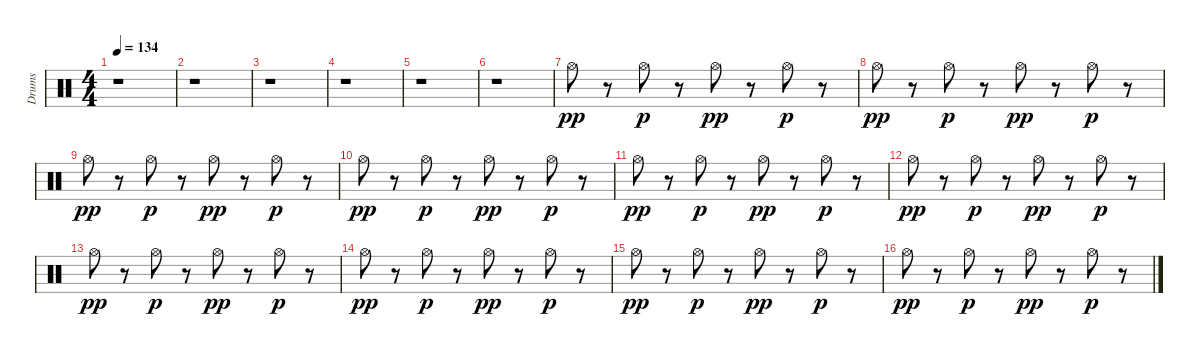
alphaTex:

\track ("Drums" "Drums") {instrument percussion}
\staff {score}
\articulation defaults
\ts (4 4)
\tempo 134
\clef neutral
\ks c
r.1{dy pp} |
r.1 |
r.1 |
r.1 |
r.1 |
r.1 |
"Hi-Hat (open)".8 r.8 "Hi-Hat (open)".8{dy p} r.8 "Hi-Hat (open)".8{dy pp} r.8 "Hi-Hat (open)".8{dy p} r.8 |
"Hi-Hat (open)".8{dy pp} r.8 "Hi-Hat (open)".8{dy p} r.8 "Hi-Hat (open)".8{dy pp} r.8 "Hi-Hat (open)".8{dy p} r.8 |
"Hi-Hat (open)".8{dy pp} r.8 "Hi-Hat (open)".8{dy p} r.8 "Hi-Hat (open)".8{dy pp} r.8 "Hi-Hat (open)".8{dy p} r.8 |
"Hi-Hat (open)".8{dy pp} r.8 "Hi-Hat (open)".8{dy p} r.8 "Hi-Hat (open)".8{dy pp} r.8 "Hi-Hat (open)".8{dy p} r.8 |
"Hi-Hat (open)".8{dy pp} r.8 "Hi-Hat (open)".8{dy p} r.8 "Hi-Hat (open)".8{dy pp} r.8 "Hi-Hat (open)".8{dy p} r.8 |
"Hi-Hat (open)".8{dy pp} r.8 "Hi-Hat (open)".8{dy p} r.8 "Hi-Hat (open)".8{dy pp} r.8 "Hi-Hat (open)".8{dy p} r.8 |
"Hi-Hat (open)".8{dy pp} r.8 "Hi-Hat (open)".8{dy p} r.8 "Hi-Hat (open)".8{dy pp} r.8 "Hi-Hat (open)".8{dy p} r.8 |
"Hi-Hat (open)".8{dy pp} r.8 "Hi-Hat (open)".8{dy p} r.8 "Hi-Hat (open)".8{dy pp} r.8 "Hi-Hat (open)".8{dy p} r.8 |
"Hi-Hat (open)".8{dy pp} r.8 "Hi-Hat (open)".8{dy p} r.8 "Hi-Hat (open)".8{dy pp} r.8 "Hi-Hat (open)".8{dy p} r.8 |
"Hi-Hat (open)".8{dy pp} r.8 "Hi-Hat (open)".8{dy p} r.8 "Hi-Hat (open)".8{dy pp} r.8 "Hi-Hat (open)".8{dy p} r.8
